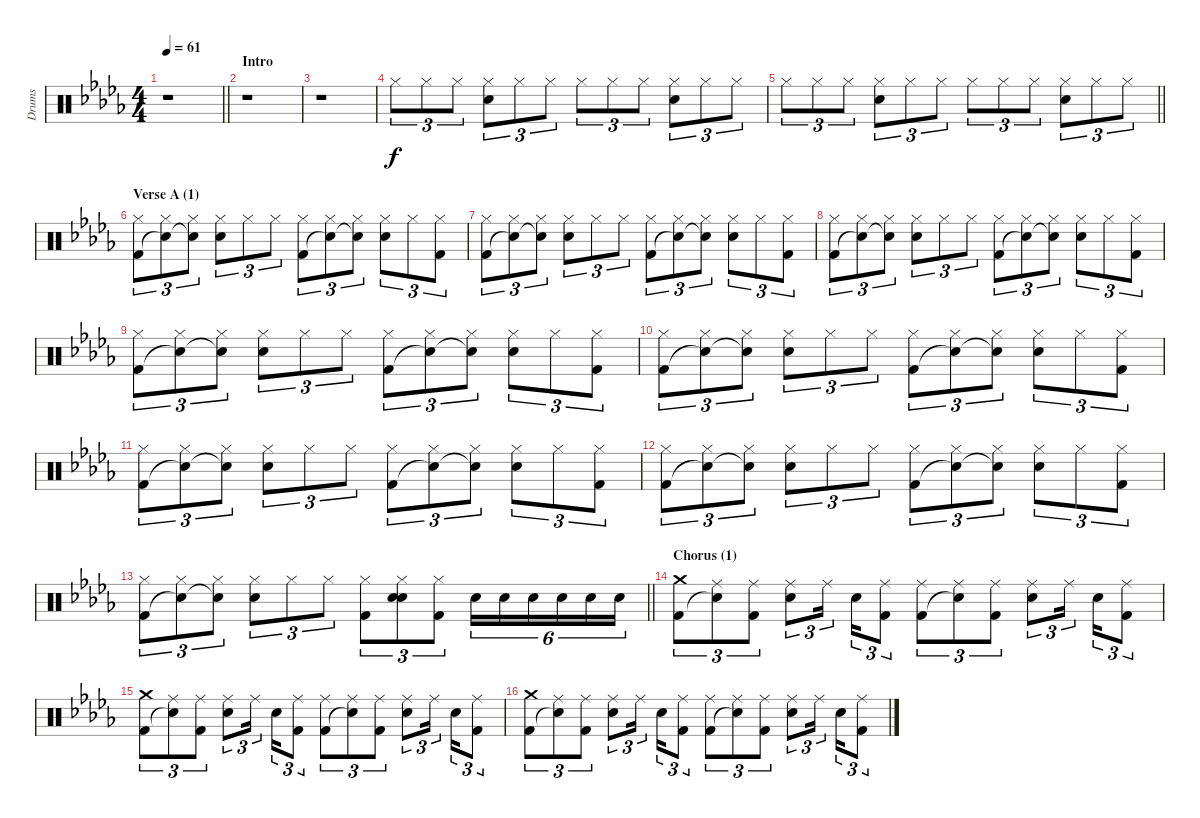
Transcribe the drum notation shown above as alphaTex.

\track ("Drums" "Drums") {instrument percussion}
\staff {score}
\articulation defaults
\ts (4 4)
\tempo 61
\clef neutral
\barLineRight lightlight
\ks bbminor
r.1{dy f} |
\section ("" "Intro")
r.1 |
r.1 |
"Hi-Hat (closed)".8{tu (3 2)} "Hi-Hat (closed)".8{tu (3 2)} "Hi-Hat (closed)".8{tu (3 2)} ("Hi-Hat (closed)" "Electric Snare (hit)").8{tu (3 2)} "Hi-Hat (closed)".8{tu (3 2)} "Hi-Hat (closed)".8{tu (3 2)} "Hi-Hat (closed)".8{tu (3 2)} "Hi-Hat (closed)".8{tu (3 2)} "Hi-Hat (closed)".8{tu (3 2)} ("Hi-Hat (closed)" "Electric Snare (hit)").8{tu (3 2)} "Hi-Hat (closed)".8{tu (3 2)} "Hi-Hat (closed)".8{tu (3 2)} |
\barLineRight lightlight "Hi-Hat (closed)".8{tu (3 2)} "Hi-Hat (closed)".8{tu (3 2)} "Hi-Hat (closed)".8{tu (3 2)}
("Hi-Hat (closed)" "Electric Snare (hit)").8{tu (3 2)} "Hi-Hat (closed)".8{tu (3 2)} "Hi-Hat (closed)".8{tu (3 2)} "Hi-Hat (closed)".8{tu (3 2)} "Hi-Hat (closed)".8{tu (3 2)} "Hi-Hat (closed)".8{tu (3 2)} ("Hi-Hat (closed)" "Electric Snare (hit)").8{tu (3 2)} "Hi-Hat (closed)".8{tu (3 2)} "Hi-Hat (closed)".8{tu (3 2)} |
\section ("" "Verse A (1)")
("Hi-Hat (closed)" "Kick (hit) 2").8{tu (3 2)} ("Hi-Hat (closed)" "Snare (hit)"{t}).8{tu (3 2)} ("Hi-Hat (closed)" "Snare (hit)"{t}).8{tu (3 2)} ("Hi-Hat (closed)" "Electric Snare (hit)").8{tu (3 2)} "Hi-Hat (closed)".8{tu (3 2)} "Hi-Hat (closed)".8{tu (3 2)} ("Hi-Hat (closed)" "Kick (hit) 2").8{tu (3 2)} ("Hi-Hat (closed)" "Snare (hit)"{t}).8{tu (3 2)} ("Hi-Hat (closed)" "Snare (hit)"{t}).8{tu (3 2)} ("Hi-Hat (closed)" "Electric Snare (hit)").8{tu (3 2)} "Hi-Hat (closed)".8{tu (3 2)} ("Hi-Hat (closed)" "Kick (hit) 2").8{tu (3 2)} |
("Hi-Hat (closed)" "Kick (hit) 2").8{tu (3 2)} ("Hi-Hat (closed)" "Snare (hit)"{t}).8{tu (3 2)} ("Hi-Hat (closed)" "Snare (hit)"{t}).8{tu (3 2)} ("Hi-Hat (closed)" "Electric Snare (hit)").8{tu (3 2)} "Hi-Hat (closed)".8{tu (3 2)} "Hi-Hat (closed)".8{tu (3 2)} ("Hi-Hat (closed)" "Kick (hit) 2").8{tu (3 2)} ("Hi-Hat (closed)" "Snare (hit)"{t}).8{tu (3 2)} ("Hi-Hat (closed)" "Snare (hit)"{t}).8{tu (3 2)} ("Hi-Hat (closed)" "Electric Snare (hit)").8{tu (3 2)} "Hi-Hat (closed)".8{tu (3 2)} ("Hi-Hat (closed)" "Kick (hit) 2").8{tu (3 2)} |
("Hi-Hat (closed)" "Kick (hit) 2").8{tu (3 2)} ("Hi-Hat (closed)" "Snare (hit)"{t}).8{tu (3 2)} ("Hi-Hat (closed)" "Snare (hit)"{t}).8{tu (3 2)} ("Hi-Hat (closed)" "Electric Snare (hit)").8{tu (3 2)} "Hi-Hat (closed)".8{tu (3 2)} "Hi-Hat (closed)".8{tu (3 2)} ("Hi-Hat (closed)" "Kick (hit) 2").8{tu (3 2)} ("Hi-Hat (closed)" "Snare (hit)"{t}).8{tu (3 2)} ("Hi-Hat (closed)" "Snare (hit)"{t}).8{tu (3 2)} ("Hi-Hat (closed)" "Electric Snare (hit)").8{tu (3 2)} "Hi-Hat (closed)".8{tu (3 2)} ("Hi-Hat (closed)" "Kick (hit) 2").8{tu (3 2)} |
("Hi-Hat (closed)" "Kick (hit) 2").8{tu (3 2)} ("Hi-Hat (closed)" "Snare (hit)"{t}).8{tu (3 2)} ("Hi-Hat (closed)" "Snare (hit)"{t}).8{tu (3 2)} ("Hi-Hat (closed)" "Electric Snare (hit)").8{tu (3 2)} "Hi-Hat (closed)".8{tu (3 2)} "Hi-Hat (closed)".8{tu (3 2)} ("Hi-Hat (closed)" "Kick (hit) 2").8{tu (3 2)} ("Hi-Hat (closed)" "Snare (hit)"{t}).8{tu (3 2)} ("Hi-Hat (closed)" "Snare (hit)"{t}).8{tu (3 2)} ("Hi-Hat (closed)" "Electric Snare (hit)").8{tu (3 2)} "Hi-Hat (closed)".8{tu (3 2)} ("Hi-Hat (closed)" "Kick (hit) 2").8{tu (3 2)} |
("Hi-Hat (closed)" "Kick (hit) 2").8{tu (3 2)} ("Hi-Hat (closed)" "Snare (hit)"{t}).8{tu (3 2)} ("Hi-Hat (closed)" "Snare (hit)"{t}).8{tu (3 2)} ("Hi-Hat (closed)" "Electric Snare (hit)").8{tu (3 2)} "Hi-Hat (closed)".8{tu (3 2)} "Hi-Hat (closed)".8{tu (3 2)} ("Hi-Hat (closed)" "Kick (hit) 2").8{tu (3 2)} ("Hi-Hat (closed)" "Snare (hit)"{t}).8{tu (3 2)} ("Hi-Hat (closed)" "Snare (hit)"{t}).8{tu (3 2)} ("Hi-Hat (closed)" "Electric Snare (hit)").8{tu (3 2)} "Hi-Hat (closed)".8{tu (3 2)} ("Hi-Hat (closed)" "Kick (hit) 2").8{tu (3 2)} |
("Hi-Hat (closed)" "Kick (hit) 2").8{tu (3 2)} ("Hi-Hat (closed)" "Snare (hit)"{t}).8{tu (3 2)} ("Hi-Hat (closed)" "Snare (hit)"{t}).8{tu (3 2)} ("Hi-Hat (closed)" "Electric Snare (hit)").8{tu (3 2)} "Hi-Hat (closed)".8{tu (3 2)} "Hi-Hat (closed)".8{tu (3 2)} ("Hi-Hat (closed)" "Kick (hit) 2").8{tu (3 2)} ("Hi-Hat (closed)" "Snare (hit)"{t}).8{tu (3 2)} ("Hi-Hat (closed)" "Snare (hit)"{t}).8{tu (3 2)} ("Hi-Hat (closed)" "Electric Snare (hit)").8{tu (3 2)} "Hi-Hat (closed)".8{tu (3 2)} ("Hi-Hat (closed)" "Kick (hit) 2").8{tu (3 2)} |
("Hi-Hat (closed)" "Kick (hit) 2").8{tu (3 2)} ("Hi-Hat (closed)" "Snare (hit)"{t}).8{tu (3 2)} ("Hi-Hat (closed)" "Snare (hit)"{t}).8{tu (3 2)} ("Hi-Hat (closed)" "Electric Snare (hit)").8{tu (3 2)} "Hi-Hat (closed)".8{tu (3 2)} "Hi-Hat (closed)".8{tu (3 2)} ("Hi-Hat (closed)" "Kick (hit) 2").8{tu (3 2)} ("Hi-Hat (closed)" "Snare (hit)"{t}).8{tu (3 2)} ("Hi-Hat (closed)" "Snare (hit)"{t}).8{tu (3 2)} ("Hi-Hat (closed)" "Electric Snare (hit)").8{tu (3 2)} "Hi-Hat (closed)".8{tu (3 2)} ("Hi-Hat (closed)" "Kick (hit) 2").8{tu (3 2)} |
\barLineRight lightlight
("Hi-Hat (closed)" "Kick (hit) 2").8{tu (3 2)} ("Hi-Hat (closed)" "Snare (hit)"{t}).8{tu (3 2)} ("Hi-Hat (closed)" "Snare (hit)"{t}).8{tu (3 2)} ("Hi-Hat (closed)" "Electric Snare (hit)").8{tu (3 2)} "Hi-Hat (closed)".8{tu (3 2)} "Hi-Hat (closed)".8{tu (3 2)} ("Hi-Hat (closed)" "Kick (hit) 2").8{tu (3 2)} ("Hi-Hat (closed)" "Electric Snare (hit)" "Snare (hit)").8{tu (3 2)} ("Hi-Hat (closed)" "Kick (hit) 2").8{tu (3 2)} "Electric Snare (hit)".16{tu (6 4)} "Electric Snare (hit)".16{tu (6 4)} "Electric Snare (hit)".16{tu (6 4)} "Electric Snare (hit)".16{tu (6 4)} "Electric Snare (hit)".16{tu (6 4)} "Electric Snare (hit)".16{tu (6 4)} |
\section ("" "Chorus (1)")
("Crash medium (hit)" "Kick (hit) 2").8{tu (3 2)} ("Ride (middle)" "Snare (hit)"{t}).8{tu (3 2)} ("Ride (middle)" "Kick (hit) 2").8{tu (3 2)} ("Ride (middle)" "Electric Snare (hit)").8{tu (3 2)} "Ride (middle)".16{tu (3 2)} "Electric Snare (hit)".16{tu (3 2)} ("Ride (middle)" "Kick (hit) 2").8{tu (3 2)} ("Ride (middle)" "Kick (hit) 2").8{tu (3 2)} ("Ride (middle)" "Snare (hit)"{t}).8{tu (3 2)} ("Ride (middle)" "Kick (hit) 2").8{tu (3 2)} ("Ride (middle)" "Electric Snare (hit)").8{tu (3 2)} "Ride (middle)".16{tu (3 2)} "Electric Snare (hit)".16{tu (3 2)} ("Ride (middle)" "Kick (hit) 2").8{tu (3 2)} |
("Crash medium (hit)" "Kick (hit) 2").8{tu (3 2)} ("Ride (middle)" "Snare (hit)"{t}).8{tu (3 2)} ("Ride (middle)" "Kick (hit) 2").8{tu (3 2)} ("Ride (middle)" "Electric Snare (hit)").8{tu (3 2)} "Ride (middle)".16{tu (3 2)} "Electric Snare (hit)".16{tu (3 2)} ("Ride (middle)" "Kick (hit) 2").8{tu (3 2)} ("Ride (middle)" "Kick (hit) 2").8{tu (3 2)} ("Ride (middle)" "Snare (hit)"{t}).8{tu (3 2)} ("Ride (middle)" "Kick (hit) 2").8{tu (3 2)} ("Ride (middle)" "Electric Snare (hit)").8{tu (3 2)} "Ride (middle)".16{tu (3 2)} "Electric Snare (hit)".16{tu (3 2)} ("Ride (middle)" "Kick (hit) 2").8{tu (3 2)} |
("Crash medium (hit)" "Kick (hit) 2").8{tu (3 2)} ("Ride (middle)" "Snare (hit)"{t}).8{tu (3 2)} ("Ride (middle)" "Kick (hit) 2").8{tu (3 2)} ("Ride (middle)" "Electric Snare (hit)").8{tu (3 2)} "Ride (middle)".16{tu (3 2)} "Electric Snare (hit)".16{tu (3 2)} ("Ride (middle)" "Kick (hit) 2").8{tu (3 2)} ("Ride (middle)" "Kick (hit) 2").8{tu (3 2)} ("Ride (middle)" "Snare (hit)"{t}).8{tu (3 2)} ("Ride (middle)" "Kick (hit) 2").8{tu (3 2)} ("Ride (middle)" "Electric Snare (hit)").8{tu (3 2)} "Ride (middle)".16{tu (3 2)} "Electric Snare (hit)".16{tu (3 2)} ("Ride (middle)" "Kick (hit) 2").8{tu (3 2)}
